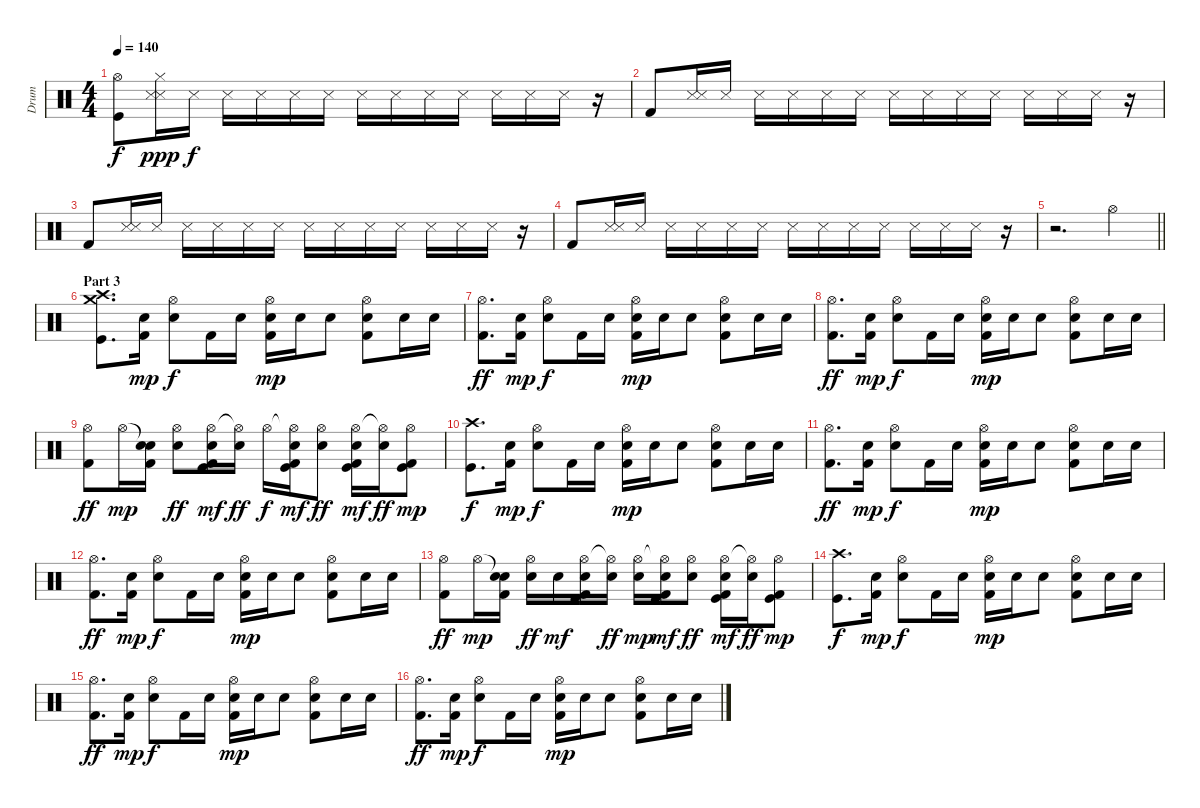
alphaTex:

\track ("Drum" "Drum") {instrument percussion}
\staff {score}
\articulation defaults
\ts (4 4)
\tempo 140
\clef neutral
\ks c
("Hi-Hat (open)" "Kick (hit)").8{dy f} ("Hi-Hat (closed)" "Metronome (hit)" "Snare (side stick) 3").16{dy ppp} "Metronome (hit)".16{dy f} "Metronome (hit)".16 "Snare (side stick) 3".16 "Metronome (hit)".16 "Metronome (hit)".16 "Snare (side stick) 3".16 "Metronome (hit)".16 "Metronome (hit)".16 "Snare (side stick) 3".16 "Metronome (hit)".16 "Metronome (hit)".16 "Snare (side stick) 3".16 r.16 |
"Kick (hit) 2".8 ("Metronome (hit)" "Snare (side stick) 3").16 "Metronome (hit)".16 "Metronome (hit)".16 "Snare (side stick) 3".16 "Metronome (hit)".16 "Metronome (hit)".16 "Snare (side stick) 3".16 "Metronome (hit)".16 "Metronome (hit)".16 "Snare (side stick) 3".16 "Metronome (hit)".16 "Metronome (hit)".16 "Snare (side stick) 3".16 r.16 |
"Kick (hit) 2".8 ("Metronome (hit)" "Snare (side stick) 3").16 "Metronome (hit)".16 "Metronome (hit)".16 "Snare (side stick) 3".16 "Metronome (hit)".16 "Metronome (hit)".16 "Snare (side stick) 3".16 "Metronome (hit)".16 "Metronome (hit)".16 "Snare (side stick) 3".16 "Metronome (hit)".16 "Metronome (hit)".16 "Snare (side stick) 3".16 r.16 |
"Kick (hit) 2".8 ("Metronome (hit)" "Snare (side stick) 3").16 "Metronome (hit)".16 "Metronome (hit)".16 "Snare (side stick) 3".16 "Metronome (hit)".16 "Metronome (hit)".16 "Snare (side stick) 3".16 "Metronome (hit)".16 "Metronome (hit)".16 "Snare (side stick) 3".16 "Metronome (hit)".16 "Metronome (hit)".16 "Snare (side stick) 3".16 r.16 |
\barLineRight lightlight
r.2{d} "Hi-Hat (open)".4 |
\section ("" "Part 3")
("Crash medium (hit)" "Crash high (hit)" "Kick (hit)").8{d} ("Electric Snare (hit)" "Kick (hit) 2").16{dy mp} ("Hi-Hat (open)" "Electric Snare (hit)").8{dy f} "Kick (hit) 2".16 "Electric Snare (hit)".16 ("Hi-Hat (open)" "Electric Snare (hit)" "Kick (hit) 2").16{dy mp} "Electric Snare (hit)".16 "Electric Snare (hit)".8 ("Hi-Hat (open)" "Electric Snare (hit)" "Kick (hit) 2").8 "Electric Snare (hit)".16 "Electric Snare (hit)".16 |
("Hi-Hat (open)" "Kick (hit) 2").8{d dy ff} ("Electric Snare (hit)" "Kick (hit) 2").16{dy mp} ("Hi-Hat (open)" "Electric Snare (hit)").8{dy f} "Kick (hit) 2".16 "Electric Snare (hit)".16 ("Hi-Hat (open)" "Electric Snare (hit)" "Kick (hit) 2").16{dy mp} "Electric Snare (hit)".16 "Electric Snare (hit)".8 ("Hi-Hat (open)" "Electric Snare (hit)" "Kick (hit) 2").8 "Electric Snare (hit)".16 "Electric Snare (hit)".16 |
("Hi-Hat (open)" "Kick (hit) 2").8{d dy ff} ("Electric Snare (hit)" "Kick (hit) 2").16{dy mp} ("Hi-Hat (open)" "Electric Snare (hit)").8{dy f} "Kick (hit) 2".16 "Electric Snare (hit)".16 ("Hi-Hat (open)" "Electric Snare (hit)" "Kick (hit) 2").16{dy mp} "Electric Snare (hit)".16 "Electric Snare (hit)".8 ("Hi-Hat (open)" "Electric Snare (hit)" "Kick (hit) 2").8 "Electric Snare (hit)".16 "Electric Snare (hit)".16 |
("Hi-Hat (open)" "Kick (hit) 2").8{dy ff} "Hi-Hat (open)".16{dy mp} ("Snare (hit)"{t} "Electric Snare (hit)" "Kick (hit) 2").16 ("Hi-Hat (open)" "Electric Snare (hit)").8{dy ff} ("Hi-Hat (open)" "Electric Snare (hit)" "Kick (hit)" "Kick (hit) 2").16{dy mf} ("Hi-Hat (open)"{t} "Electric Snare (hit)").16{dy ff} "Hi-Hat (open)".16{dy f} ("Hi-Hat (open)"{t} "Electric Snare (hit)" "Kick (hit)" "Kick (hit) 2").16{dy mf} ("Hi-Hat (open)" "Electric Snare (hit)").8{dy ff} ("Hi-Hat (open)" "Electric Snare (hit)" "Kick (hit)" "Kick (hit) 2").16{dy mf} ("Hi-Hat (open)"{t} "Electric Snare (hit)").16{dy ff} ("Hi-Hat (open)" "Kick (hit)" "Kick (hit) 2").8{dy mp} |
("Crash high (hit)" "Kick (hit)").8{d dy f} ("Electric Snare (hit)" "Kick (hit) 2").16{dy mp} ("Hi-Hat (open)" "Electric Snare (hit)").8{dy f} "Kick (hit) 2".16 "Electric Snare (hit)".16 ("Hi-Hat (open)" "Electric Snare (hit)" "Kick (hit) 2").16{dy mp} "Electric Snare (hit)".16 "Electric Snare (hit)".8 ("Hi-Hat (open)" "Electric Snare (hit)" "Kick (hit) 2").8 "Electric Snare (hit)".16 "Electric Snare (hit)".16 |
("Hi-Hat (open)" "Kick (hit) 2").8{d dy ff} ("Electric Snare (hit)" "Kick (hit) 2").16{dy mp} ("Hi-Hat (open)" "Electric Snare (hit)").8{dy f} "Kick (hit) 2".16 "Electric Snare (hit)".16 ("Hi-Hat (open)" "Electric Snare (hit)" "Kick (hit) 2").16{dy mp} "Electric Snare (hit)".16 "Electric Snare (hit)".8 ("Hi-Hat (open)" "Electric Snare (hit)" "Kick (hit) 2").8 "Electric Snare (hit)".16 "Electric Snare (hit)".16 |
("Hi-Hat (open)" "Kick (hit) 2").8{d dy ff} ("Electric Snare (hit)" "Kick (hit) 2").16{dy mp} ("Hi-Hat (open)" "Electric Snare (hit)").8{dy f} "Kick (hit) 2".16 "Electric Snare (hit)".16 ("Hi-Hat (open)" "Electric Snare (hit)" "Kick (hit) 2").16{dy mp} "Electric Snare (hit)".16 "Electric Snare (hit)".8 ("Hi-Hat (open)" "Electric Snare (hit)" "Kick (hit) 2").8 "Electric Snare (hit)".16 "Electric Snare (hit)".16 |
("Hi-Hat (open)" "Kick (hit) 2").8{dy ff} "Hi-Hat (open)".16{dy mp} ("Snare (hit)"{t} "Electric Snare (hit)" "Kick (hit) 2").16 ("Hi-Hat (open)" "Electric Snare (hit)").16{dy ff} "Electric Snare (hit)".16{dy mf} ("Hi-Hat (open)" "Electric Snare (hit)" "Kick (hit)" "Kick (hit) 2").16 ("Hi-Hat (open)"{t} "Electric Snare (hit)").16{dy ff} ("Hi-Hat (open)" "Electric Snare (hit)").16{dy mp} ("Hi-Hat (open)"{t} "Electric Snare (hit)" "Kick (hit)" "Kick (hit) 2").16{dy mf} ("Hi-Hat (open)" "Electric Snare (hit)").8{dy ff} ("Hi-Hat (open)" "Electric Snare (hit)" "Kick (hit)" "Kick (hit) 2").16{dy mf} ("Hi-Hat (open)"{t} "Electric Snare (hit)").16{dy ff} ("Hi-Hat (open)" "Kick (hit)" "Kick (hit) 2").8{dy mp} |
("Crash high (hit)" "Kick (hit)").8{d dy f} ("Electric Snare (hit)" "Kick (hit) 2").16{dy mp} ("Hi-Hat (open)" "Electric Snare (hit)").8{dy f} "Kick (hit) 2".16 "Electric Snare (hit)".16 ("Hi-Hat (open)" "Electric Snare (hit)" "Kick (hit) 2").16{dy mp} "Electric Snare (hit)".16 "Electric Snare (hit)".8 ("Hi-Hat (open)" "Electric Snare (hit)" "Kick (hit) 2").8 "Electric Snare (hit)".16 "Electric Snare (hit)".16 |
("Hi-Hat (open)" "Kick (hit) 2").8{d dy ff} ("Electric Snare (hit)" "Kick (hit) 2").16{dy mp} ("Hi-Hat (open)" "Electric Snare (hit)").8{dy f} "Kick (hit) 2".16 "Electric Snare (hit)".16 ("Hi-Hat (open)" "Electric Snare (hit)" "Kick (hit) 2").16{dy mp} "Electric Snare (hit)".16 "Electric Snare (hit)".8 ("Hi-Hat (open)" "Electric Snare (hit)" "Kick (hit) 2").8 "Electric Snare (hit)".16 "Electric Snare (hit)".16 |
("Hi-Hat (open)" "Kick (hit) 2").8{d dy ff} ("Electric Snare (hit)" "Kick (hit) 2").16{dy mp} ("Hi-Hat (open)" "Electric Snare (hit)").8{dy f} "Kick (hit) 2".16 "Electric Snare (hit)".16 ("Hi-Hat (open)" "Electric Snare (hit)" "Kick (hit) 2").16{dy mp} "Electric Snare (hit)".16 "Electric Snare (hit)".8 ("Hi-Hat (open)" "Electric Snare (hit)" "Kick (hit) 2").8 "Electric Snare (hit)".16 "Electric Snare (hit)".16
